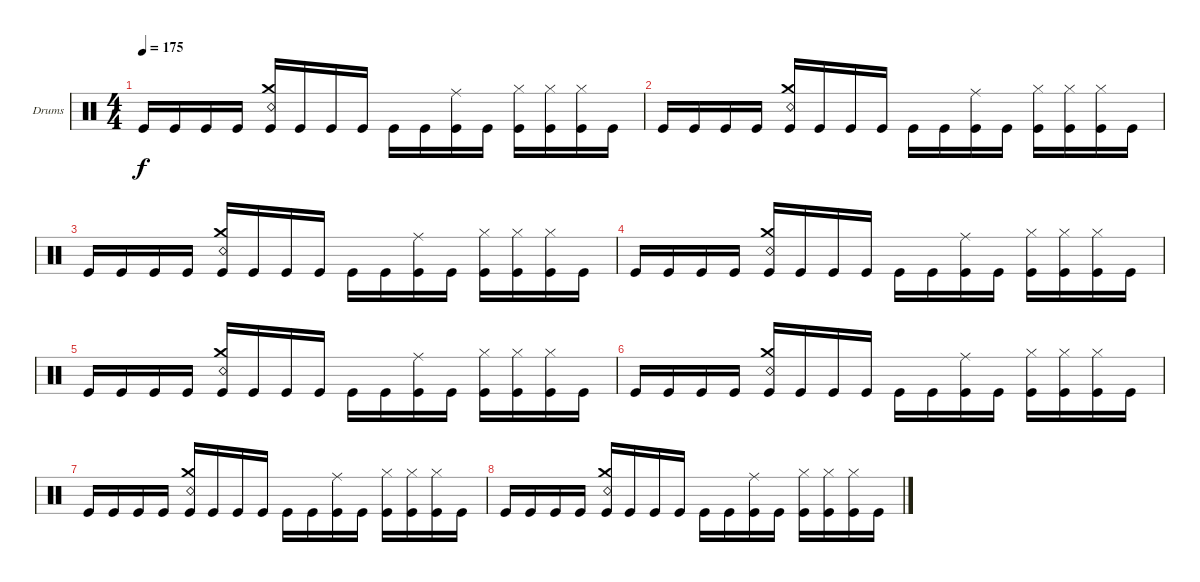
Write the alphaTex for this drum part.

\bracketExtendMode groupsimilarinstruments
\firstSystemTrackNameOrientation horizontal
\otherSystemsTrackNameOrientation horizontal
\track ("Drumkit" "Drums") {instrument percussion}
\staff {score}
\articulation defaults
\ts (4 4)
\tempo 175
\clef neutral
\ks c "Kick (hit)".16{dy f} "Kick (hit)".16 "Kick (hit)".16 "Kick (hit)".16
("Crash medium (hit)" "Snare (rim shot)" "Kick (hit)").16 "Kick (hit)".16 "Kick (hit)".16 "Kick (hit)".16 "Kick (hit)".16 "Kick (hit)".16 ("Ride (middle)" "Kick (hit)").16 "Kick (hit)".16 ("Hi-Hat (closed)" "Kick (hit)").16 ("Hi-Hat (closed)" "Kick (hit)").16 ("Hi-Hat (closed)" "Kick (hit)").16 "Kick (hit)".16 |
"Kick (hit)".16 "Kick (hit)".16 "Kick (hit)".16 "Kick (hit)".16 ("Crash medium (hit)" "Snare (rim shot)" "Kick (hit)").16 "Kick (hit)".16 "Kick (hit)".16 "Kick (hit)".16 "Kick (hit)".16 "Kick (hit)".16 ("Ride (middle)" "Kick (hit)").16 "Kick (hit)".16 ("Hi-Hat (closed)" "Kick (hit)").16 ("Hi-Hat (closed)" "Kick (hit)").16 ("Hi-Hat (closed)" "Kick (hit)").16 "Kick (hit)".16 |
"Kick (hit)".16 "Kick (hit)".16 "Kick (hit)".16 "Kick (hit)".16 ("Crash medium (hit)" "Snare (rim shot)" "Kick (hit)").16 "Kick (hit)".16 "Kick (hit)".16 "Kick (hit)".16 "Kick (hit)".16 "Kick (hit)".16 ("Ride (middle)" "Kick (hit)").16 "Kick (hit)".16 ("Hi-Hat (closed)" "Kick (hit)").16 ("Hi-Hat (closed)" "Kick (hit)").16 ("Hi-Hat (closed)" "Kick (hit)").16 "Kick (hit)".16 |
"Kick (hit)".16 "Kick (hit)".16 "Kick (hit)".16 "Kick (hit)".16 ("Crash medium (hit)" "Snare (rim shot)" "Kick (hit)").16 "Kick (hit)".16 "Kick (hit)".16 "Kick (hit)".16 "Kick (hit)".16 "Kick (hit)".16 ("Ride (middle)" "Kick (hit)").16 "Kick (hit)".16 ("Hi-Hat (closed)" "Kick (hit)").16 ("Hi-Hat (closed)" "Kick (hit)").16 ("Hi-Hat (closed)" "Kick (hit)").16 "Kick (hit)".16 |
"Kick (hit)".16 "Kick (hit)".16 "Kick (hit)".16 "Kick (hit)".16 ("Crash medium (hit)" "Snare (rim shot)" "Kick (hit)").16 "Kick (hit)".16 "Kick (hit)".16 "Kick (hit)".16 "Kick (hit)".16 "Kick (hit)".16 ("Ride (middle)" "Kick (hit)").16 "Kick (hit)".16 ("Hi-Hat (closed)" "Kick (hit)").16 ("Hi-Hat (closed)" "Kick (hit)").16 ("Hi-Hat (closed)" "Kick (hit)").16 "Kick (hit)".16 |
"Kick (hit)".16 "Kick (hit)".16 "Kick (hit)".16 "Kick (hit)".16 ("Crash medium (hit)" "Snare (rim shot)" "Kick (hit)").16 "Kick (hit)".16 "Kick (hit)".16 "Kick (hit)".16 "Kick (hit)".16 "Kick (hit)".16 ("Ride (middle)" "Kick (hit)").16 "Kick (hit)".16 ("Hi-Hat (closed)" "Kick (hit)").16 ("Hi-Hat (closed)" "Kick (hit)").16 ("Hi-Hat (closed)" "Kick (hit)").16 "Kick (hit)".16 |
"Kick (hit)".16 "Kick (hit)".16 "Kick (hit)".16 "Kick (hit)".16 ("Crash medium (hit)" "Snare (rim shot)" "Kick (hit)").16 "Kick (hit)".16 "Kick (hit)".16 "Kick (hit)".16 "Kick (hit)".16 "Kick (hit)".16 ("Ride (middle)" "Kick (hit)").16 "Kick (hit)".16 ("Hi-Hat (closed)" "Kick (hit)").16 ("Hi-Hat (closed)" "Kick (hit)").16 ("Hi-Hat (closed)" "Kick (hit)").16 "Kick (hit)".16 |
"Kick (hit)".16 "Kick (hit)".16 "Kick (hit)".16 "Kick (hit)".16 ("Crash medium (hit)" "Snare (rim shot)" "Kick (hit)").16 "Kick (hit)".16 "Kick (hit)".16 "Kick (hit)".16 "Kick (hit)".16 "Kick (hit)".16 ("Ride (middle)" "Kick (hit)").16 "Kick (hit)".16 ("Hi-Hat (closed)" "Kick (hit)").16 ("Hi-Hat (closed)" "Kick (hit)").16 ("Hi-Hat (closed)" "Kick (hit)").16 "Kick (hit)".16
